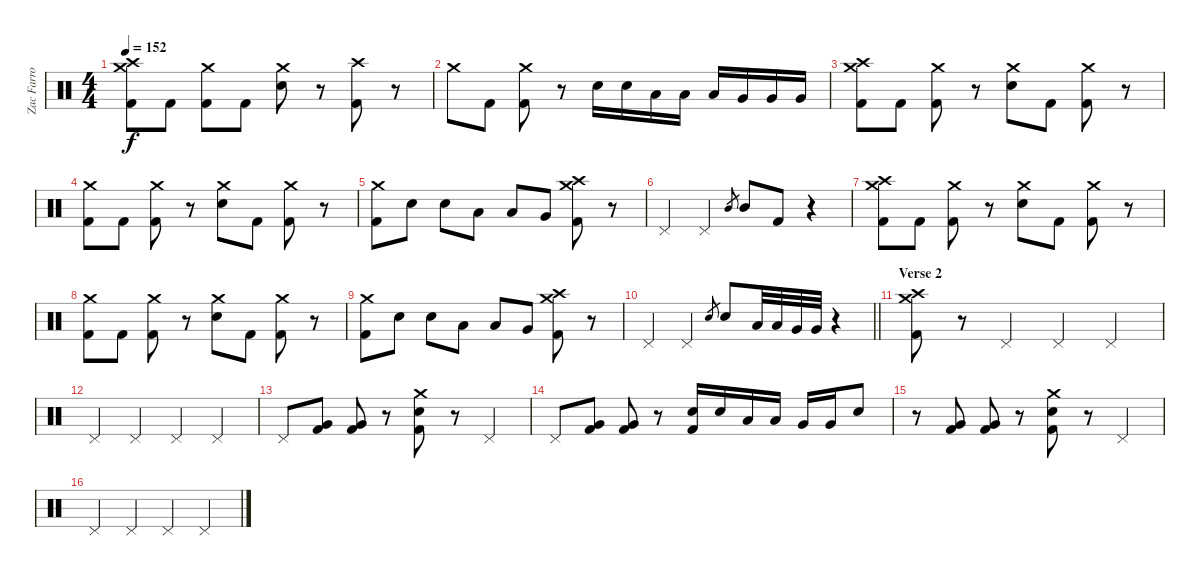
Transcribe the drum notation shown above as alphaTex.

\track ("Zac Farro - Drums" "Zac Farro ") {instrument percussion}
\staff {score}
\articulation defaults
\ts (4 4)
\tempo 152
\clef neutral
\ks c
("Crash high (hit)" "Crash medium (hit)" "Kick (hit) 2").8{dy f} "Kick (hit) 2".8 ("Crash medium (hit)" "Kick (hit) 2").8 "Kick (hit) 2".8 ("Crash medium (hit)" "Electric Snare (hit)").8 r.8 ("Crash high (hit)" "Kick (hit) 2").8 r.8 |
"Crash medium (hit)".8 "Kick (hit) 2".8 ("Crash medium (hit)" "Kick (hit) 2").8 r.8 "Electric Snare (hit)".16 "Electric Snare (hit)".16 "Low Tom (hit)".16 "Low Tom (hit)".16 "Low Tom (hit)".16 "Very Low Tom (hit)".16 "Very Low Tom (hit)".16 "Very Low Tom (hit)".16 |
("Crash high (hit)" "Crash medium (hit)" "Kick (hit) 2").8 "Kick (hit) 2".8 ("Crash medium (hit)" "Kick (hit) 2").8 r.8 ("Crash medium (hit)" "Electric Snare (hit)").8 "Kick (hit) 2".8 ("Crash medium (hit)" "Kick (hit) 2").8 r.8 |
("Crash medium (hit)" "Kick (hit) 2").8 "Kick (hit) 2".8 ("Crash medium (hit)" "Kick (hit) 2").8 r.8 ("Crash medium (hit)" "Electric Snare (hit)").8 "Kick (hit) 2".8 ("Crash medium (hit)" "Kick (hit) 2").8 r.8 |
("Crash medium (hit)" "Kick (hit) 2").8 "Electric Snare (hit)".8 "Electric Snare (hit)".8 "Low Tom (hit)".8 "Low Tom (hit)".8 "Very Low Tom (hit)".8 ("Crash high (hit)" "Crash medium (hit)" "Kick (hit) 2").8 r.8 |
"Pedal Hi-Hat (hit)".4 "Pedal Hi-Hat (hit)".4 "Mid Tom (hit)".8{gr} "Mid Tom (hit)".8 "Kick (hit) 2".8 r.4 |
("Crash high (hit)" "Crash medium (hit)" "Kick (hit) 2").8 "Kick (hit) 2".8 ("Crash medium (hit)" "Kick (hit) 2").8 r.8 ("Crash medium (hit)" "Electric Snare (hit)").8 "Kick (hit) 2".8 ("Crash medium (hit)" "Kick (hit) 2").8 r.8 |
("Crash medium (hit)" "Kick (hit) 2").8 "Kick (hit) 2".8 ("Crash medium (hit)" "Kick (hit) 2").8 r.8 ("Crash medium (hit)" "Electric Snare (hit)").8 "Kick (hit) 2".8 ("Crash medium (hit)" "Kick (hit) 2").8 r.8 |
("Crash medium (hit)" "Kick (hit) 2").8 "Electric Snare (hit)".8 "Electric Snare (hit)".8 "Low Tom (hit)".8 "Low Tom (hit)".8 "Very Low Tom (hit)".8 ("Crash high (hit)" "Crash medium (hit)" "Kick (hit) 2").8 r.8 |
\barLineRight lightlight "Pedal Hi-Hat (hit)".4 "Pedal Hi-Hat (hit)".4 "Electric Snare (hit)".8{gr} "Electric Snare (hit)".8 "Low Tom (hit)".32 "Low Tom (hit)".32 "Very Low Tom (hit)".32 "Very Low Tom (hit)".32
r.4 |
\section ("" "Verse 2")
("Crash high (hit)" "Crash medium (hit)" "Kick (hit) 2").8 r.8 "Pedal Hi-Hat (hit)".4 "Pedal Hi-Hat (hit)".4 "Pedal Hi-Hat (hit)".4 |
"Pedal Hi-Hat (hit)".4 "Pedal Hi-Hat (hit)".4 "Pedal Hi-Hat (hit)".4 "Pedal Hi-Hat (hit)".4 |
"Pedal Hi-Hat (hit)".8 ("Very Low Tom (hit)" "Kick (hit) 2").8 ("Very Low Tom (hit)" "Kick (hit) 2").8 r.8 ("Crash medium (hit)" "Electric Snare (hit)" "Kick (hit) 2").8 r.8 "Pedal Hi-Hat (hit)".4 |
"Pedal Hi-Hat (hit)".8 ("Very Low Tom (hit)" "Kick (hit) 2").8 ("Very Low Tom (hit)" "Kick (hit) 2").8 r.8 ("Electric Snare (hit)" "Kick (hit) 2").16 "Electric Snare (hit)".16 "Low Tom (hit)".16 "Low Tom (hit)".16 "Very Low Tom (hit)".16 "Very Low Tom (hit)".16 "Electric Snare (hit)".8 |
r.8 ("Very Low Tom (hit)" "Kick (hit) 2").8 ("Very Low Tom (hit)" "Kick (hit) 2").8 r.8 ("Crash medium (hit)" "Electric Snare (hit)" "Kick (hit) 2").8 r.8 "Pedal Hi-Hat (hit)".4 |
"Pedal Hi-Hat (hit)".4 "Pedal Hi-Hat (hit)".4 "Pedal Hi-Hat (hit)".4 "Pedal Hi-Hat (hit)".4
